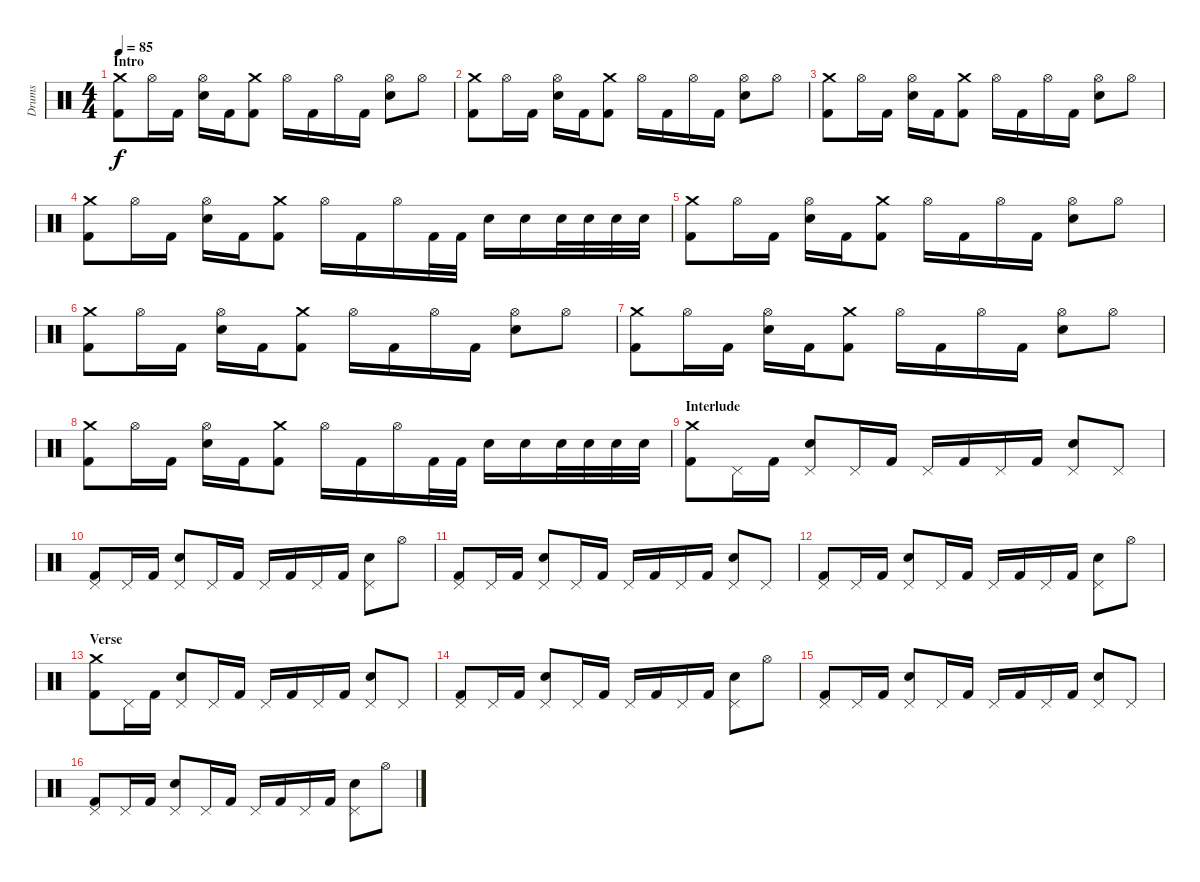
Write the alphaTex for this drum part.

\track ("Drums" "Drums") {instrument percussion}
\staff {score}
\articulation defaults
\ts (4 4)
\section ("" "Intro")
\tempo 85
\clef neutral
\ks c
("Crash medium (hit)" "Kick (hit) 2").8{dy f} "Hi-Hat (open)".16 "Kick (hit) 2".16 ("Hi-Hat (open)" "Electric Snare (hit)").16 "Kick (hit) 2".16 ("Crash medium (hit)" "Kick (hit) 2").8 "Hi-Hat (open)".16 "Kick (hit) 2".16 "Hi-Hat (open)".16 "Kick (hit) 2".16 ("Hi-Hat (open)" "Electric Snare (hit)").8 "Hi-Hat (open)".8 |
("Crash medium (hit)" "Kick (hit) 2").8 "Hi-Hat (open)".16 "Kick (hit) 2".16 ("Hi-Hat (open)" "Electric Snare (hit)").16 "Kick (hit) 2".16 ("Crash medium (hit)" "Kick (hit) 2").8 "Hi-Hat (open)".16 "Kick (hit) 2".16 "Hi-Hat (open)".16 "Kick (hit) 2".16 ("Hi-Hat (open)" "Electric Snare (hit)").8 "Hi-Hat (open)".8 |
("Crash medium (hit)" "Kick (hit) 2").8 "Hi-Hat (open)".16 "Kick (hit) 2".16 ("Hi-Hat (open)" "Electric Snare (hit)").16 "Kick (hit) 2".16 ("Crash medium (hit)" "Kick (hit) 2").8 "Hi-Hat (open)".16 "Kick (hit) 2".16 "Hi-Hat (open)".16 "Kick (hit) 2".16 ("Hi-Hat (open)" "Electric Snare (hit)").8 "Hi-Hat (open)".8 |
("Crash medium (hit)" "Kick (hit) 2").8 "Hi-Hat (open)".16 "Kick (hit) 2".16 ("Hi-Hat (open)" "Electric Snare (hit)").16 "Kick (hit) 2".16 ("Crash medium (hit)" "Kick (hit) 2").8 "Hi-Hat (open)".16 "Kick (hit) 2".16 "Hi-Hat (open)".16 "Kick (hit) 2".32 "Kick (hit) 2".32 "Electric Snare (hit)".16 "Electric Snare (hit)".16 "Electric Snare (hit)".32 "Electric Snare (hit)".32 "Electric Snare (hit)".32 "Electric Snare (hit)".32 |
("Crash medium (hit)" "Kick (hit) 2").8 "Hi-Hat (open)".16 "Kick (hit) 2".16 ("Hi-Hat (open)" "Electric Snare (hit)").16 "Kick (hit) 2".16 ("Crash medium (hit)" "Kick (hit) 2").8 "Hi-Hat (open)".16 "Kick (hit) 2".16 "Hi-Hat (open)".16 "Kick (hit) 2".16 ("Hi-Hat (open)" "Electric Snare (hit)").8 "Hi-Hat (open)".8 |
("Crash medium (hit)" "Kick (hit) 2").8 "Hi-Hat (open)".16 "Kick (hit) 2".16 ("Hi-Hat (open)" "Electric Snare (hit)").16 "Kick (hit) 2".16 ("Crash medium (hit)" "Kick (hit) 2").8 "Hi-Hat (open)".16 "Kick (hit) 2".16 "Hi-Hat (open)".16 "Kick (hit) 2".16 ("Hi-Hat (open)" "Electric Snare (hit)").8 "Hi-Hat (open)".8 |
("Crash medium (hit)" "Kick (hit) 2").8 "Hi-Hat (open)".16 "Kick (hit) 2".16 ("Hi-Hat (open)" "Electric Snare (hit)").16 "Kick (hit) 2".16 ("Crash medium (hit)" "Kick (hit) 2").8 "Hi-Hat (open)".16 "Kick (hit) 2".16 "Hi-Hat (open)".16 "Kick (hit) 2".16 ("Hi-Hat (open)" "Electric Snare (hit)").8 "Hi-Hat (open)".8 |
("Crash medium (hit)" "Kick (hit) 2").8 "Hi-Hat (open)".16 "Kick (hit) 2".16 ("Hi-Hat (open)" "Electric Snare (hit)").16 "Kick (hit) 2".16 ("Crash medium (hit)" "Kick (hit) 2").8 "Hi-Hat (open)".16 "Kick (hit) 2".16 "Hi-Hat (open)".16 "Kick (hit) 2".32 "Kick (hit) 2".32 "Electric Snare (hit)".16 "Electric Snare (hit)".16 "Electric Snare (hit)".32 "Electric Snare (hit)".32 "Electric Snare (hit)".32 "Electric Snare (hit)".32 |
\section ("" "Interlude")
("Crash medium (hit)" "Kick (hit) 2").8 "Pedal Hi-Hat (hit)".16 "Kick (hit) 2".16 ("Pedal Hi-Hat (hit)" "Electric Snare (hit)").8 "Pedal Hi-Hat (hit)".16 "Kick (hit) 2".16 "Pedal Hi-Hat (hit)".16 "Kick (hit) 2".16 "Pedal Hi-Hat (hit)".16 "Kick (hit) 2".16 ("Pedal Hi-Hat (hit)" "Electric Snare (hit)").8 "Pedal Hi-Hat (hit)".8 |
("Pedal Hi-Hat (hit)" "Kick (hit) 2").8 "Pedal Hi-Hat (hit)".16 "Kick (hit) 2".16 ("Pedal Hi-Hat (hit)" "Electric Snare (hit)").8 "Pedal Hi-Hat (hit)".16 "Kick (hit) 2".16 "Pedal Hi-Hat (hit)".16 "Kick (hit) 2".16 "Pedal Hi-Hat (hit)".16 "Kick (hit) 2".16 ("Pedal Hi-Hat (hit)" "Electric Snare (hit)").8 "Hi-Hat (open)".8 |
("Pedal Hi-Hat (hit)" "Kick (hit) 2").8 "Pedal Hi-Hat (hit)".16 "Kick (hit) 2".16 ("Pedal Hi-Hat (hit)" "Electric Snare (hit)").8 "Pedal Hi-Hat (hit)".16 "Kick (hit) 2".16 "Pedal Hi-Hat (hit)".16 "Kick (hit) 2".16 "Pedal Hi-Hat (hit)".16 "Kick (hit) 2".16 ("Pedal Hi-Hat (hit)" "Electric Snare (hit)").8 "Pedal Hi-Hat (hit)".8 |
("Pedal Hi-Hat (hit)" "Kick (hit) 2").8 "Pedal Hi-Hat (hit)".16 "Kick (hit) 2".16 ("Pedal Hi-Hat (hit)" "Electric Snare (hit)").8 "Pedal Hi-Hat (hit)".16 "Kick (hit) 2".16 "Pedal Hi-Hat (hit)".16 "Kick (hit) 2".16 "Pedal Hi-Hat (hit)".16 "Kick (hit) 2".16 ("Pedal Hi-Hat (hit)" "Electric Snare (hit)").8 "Hi-Hat (open)".8 |
\section ("" "Verse")
("Crash medium (hit)" "Kick (hit) 2").8 "Pedal Hi-Hat (hit)".16 "Kick (hit) 2".16 ("Pedal Hi-Hat (hit)" "Electric Snare (hit)").8 "Pedal Hi-Hat (hit)".16 "Kick (hit) 2".16 "Pedal Hi-Hat (hit)".16 "Kick (hit) 2".16 "Pedal Hi-Hat (hit)".16 "Kick (hit) 2".16 ("Pedal Hi-Hat (hit)" "Electric Snare (hit)").8 "Pedal Hi-Hat (hit)".8 |
("Pedal Hi-Hat (hit)" "Kick (hit) 2").8 "Pedal Hi-Hat (hit)".16 "Kick (hit) 2".16 ("Pedal Hi-Hat (hit)" "Electric Snare (hit)").8 "Pedal Hi-Hat (hit)".16 "Kick (hit) 2".16 "Pedal Hi-Hat (hit)".16 "Kick (hit) 2".16 "Pedal Hi-Hat (hit)".16 "Kick (hit) 2".16 ("Pedal Hi-Hat (hit)" "Electric Snare (hit)").8 "Hi-Hat (open)".8 |
("Pedal Hi-Hat (hit)" "Kick (hit) 2").8 "Pedal Hi-Hat (hit)".16 "Kick (hit) 2".16 ("Pedal Hi-Hat (hit)" "Electric Snare (hit)").8 "Pedal Hi-Hat (hit)".16 "Kick (hit) 2".16 "Pedal Hi-Hat (hit)".16 "Kick (hit) 2".16 "Pedal Hi-Hat (hit)".16 "Kick (hit) 2".16 ("Pedal Hi-Hat (hit)" "Electric Snare (hit)").8 "Pedal Hi-Hat (hit)".8 |
("Pedal Hi-Hat (hit)" "Kick (hit) 2").8 "Pedal Hi-Hat (hit)".16 "Kick (hit) 2".16 ("Pedal Hi-Hat (hit)" "Electric Snare (hit)").8 "Pedal Hi-Hat (hit)".16 "Kick (hit) 2".16 "Pedal Hi-Hat (hit)".16 "Kick (hit) 2".16 "Pedal Hi-Hat (hit)".16 "Kick (hit) 2".16 ("Pedal Hi-Hat (hit)" "Electric Snare (hit)").8 "Hi-Hat (open)".8
